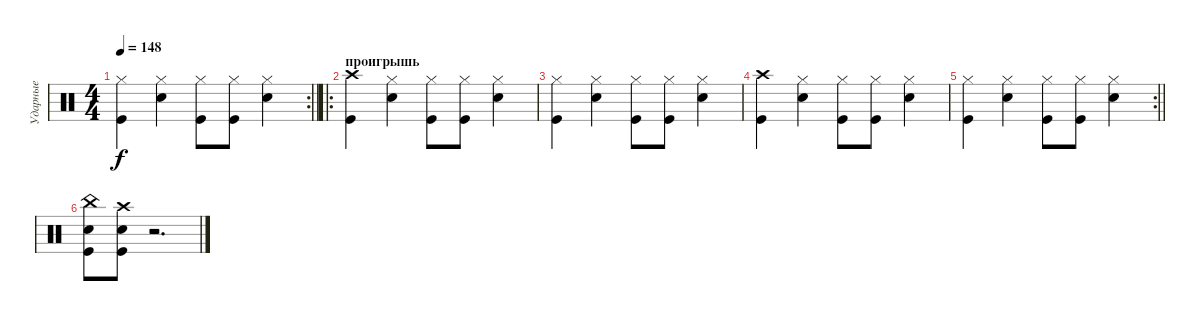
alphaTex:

\track ("Ударные" "Ударные") {instrument percussion}
\staff {score}
\articulation defaults
\rc 2
\ts (4 4)
\tempo 148
\clef neutral
\barLineRight lightlight
\ks c
("Kick (hit)" "Hi-Hat (closed)").4{dy f} ("Snare (hit) 2" "Hi-Hat (closed)").4 ("Kick (hit)" "Hi-Hat (closed)").8 ("Kick (hit)" "Hi-Hat (closed)").8 ("Snare (hit) 2" "Hi-Hat (closed)").4 |
\ro
\section ("" "проигрышь")
("Kick (hit)" "Crash high (hit)").4 ("Snare (hit) 2" "Hi-Hat (closed)").4 ("Kick (hit)" "Hi-Hat (closed)").8 ("Kick (hit)" "Hi-Hat (closed)").8 ("Snare (hit) 2" "Hi-Hat (closed)").4 |
("Kick (hit)" "Hi-Hat (closed)").4 ("Snare (hit) 2" "Hi-Hat (closed)").4 ("Kick (hit)" "Hi-Hat (closed)").8 ("Kick (hit)" "Hi-Hat (closed)").8 ("Snare (hit) 2" "Hi-Hat (closed)").4 |
("Kick (hit)" "Crash high (hit)").4 ("Snare (hit) 2" "Hi-Hat (closed)").4 ("Kick (hit)" "Hi-Hat (closed)").8 ("Kick (hit)" "Hi-Hat (closed)").8 ("Snare (hit) 2" "Hi-Hat (closed)").4 |
\rc 2
\barLineRight lightlight
("Kick (hit)" "Hi-Hat (closed)").4 ("Snare (hit) 2" "Hi-Hat (closed)").4 ("Kick (hit)" "Hi-Hat (closed)").8 ("Kick (hit)" "Hi-Hat (closed)").8 ("Snare (hit) 2" "Hi-Hat (closed)").4 |
("Snare (hit) 2" "Kick (hit)" "China (hit)").8 ("Snare (hit) 2" "Kick (hit)" "Crash high (hit)").8 r.2{d}
